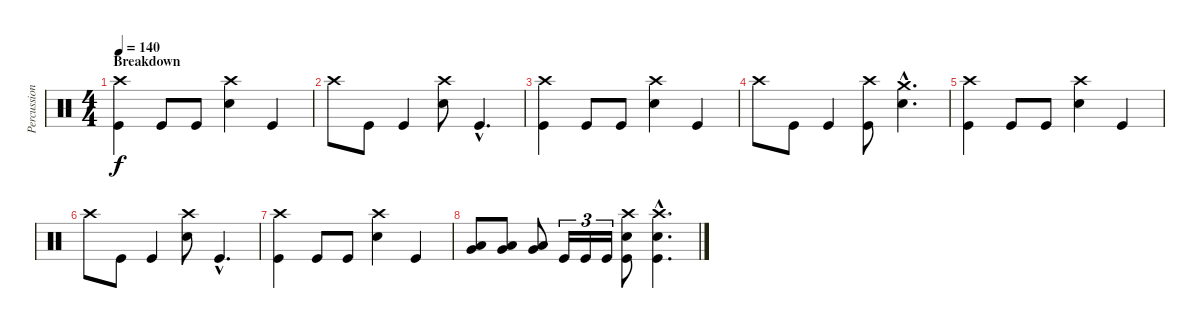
\track ("Percussion" "Percussion") {instrument percussion}
\staff {score}
\articulation defaults
\ts (4 4)
\section ("" "Breakdown")
\tempo 140
\clef neutral
\ks c
("Crash high (hit)" "Kick (hit)").4{dy f} "Kick (hit)".8 "Kick (hit)".8 ("Crash high (hit)" "Snare (hit) 2").4 "Kick (hit)".4 |
"Crash high (hit)".8 "Kick (hit)".8 "Kick (hit)".4 ("Crash high (hit)" "Snare (hit) 2").8 "Kick (hit)"{hac}.4{d} |
("Crash high (hit)" "Kick (hit)").4 "Kick (hit)".8 "Kick (hit)".8 ("Crash high (hit)" "Snare (hit) 2").4 "Kick (hit)".4 |
"Crash high (hit)".8 "Kick (hit)".8 "Kick (hit)".4 ("Crash high (hit)" "Kick (hit)").8 ("Crash medium (hit)"{hac} "Snare (hit) 2"{hac}).4{d} |
("Crash high (hit)" "Kick (hit)").4 "Kick (hit)".8 "Kick (hit)".8 ("Crash high (hit)" "Snare (hit) 2").4 "Kick (hit)".4 |
"Crash high (hit)".8 "Kick (hit)".8 "Kick (hit)".4 ("Crash high (hit)" "Snare (hit) 2").8 "Kick (hit)"{hac}.4{d} |
("Crash high (hit)" "Kick (hit)").4 "Kick (hit)".8 "Kick (hit)".8 ("Crash high (hit)" "Snare (hit) 2").4 "Kick (hit)".4 |
("Very Low Tom (hit)" "Low Floor Tom (hit)").8 ("Very Low Tom (hit)" "Low Floor Tom (hit)").8 ("Very Low Tom (hit)" "Low Floor Tom (hit)").8 "Kick (hit)".16{tu (3 2)} "Kick (hit)".16{tu (3 2)} "Kick (hit)".16{tu (3 2)} ("Kick (hit)" "Crash high (hit)" "Snare (hit) 2").8 ("Kick (hit)"{hac} "Crash high (hit)"{hac} "Snare (hit) 2"{hac}).4{d}
